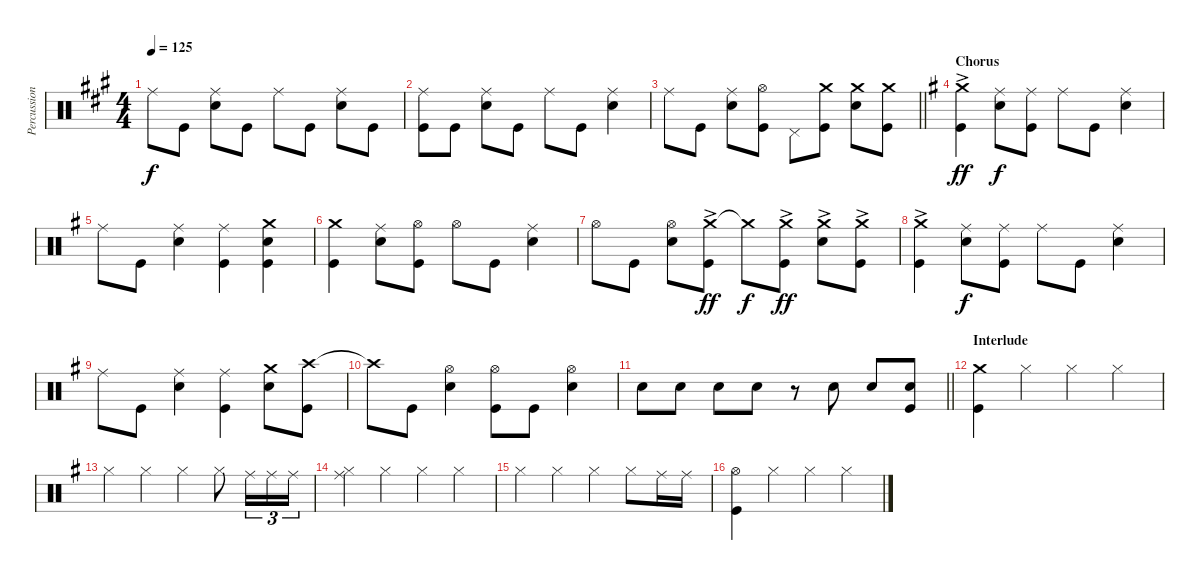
\track ("Percussion" "Percussion") {instrument percussion}
\staff {score}
\articulation defaults
\ts (4 4)
\tempo 125
\clef neutral
\ks a "Ride (middle)".8{dy f} "Kick (hit)".8
("Ride (middle)" "Snare (hit) 2").8 "Kick (hit)".8 "Ride (middle)".8 "Kick (hit)".8 ("Ride (middle)" "Snare (hit) 2").8 "Kick (hit)".8 |
("Ride (middle)" "Kick (hit)").8 "Kick (hit)".8 ("Ride (middle)" "Snare (hit) 2").8 "Kick (hit)".8 "Ride (middle)".8 "Kick (hit)".8 ("Ride (middle)" "Snare (hit) 2").4 |
\barLineRight lightlight "Ride (middle)".8 "Kick (hit)".8
("Ride (middle)" "Snare (hit) 2").8 ("Hi-Hat (open)" "Kick (hit)").8 "Pedal Hi-Hat (hit)".8 ("Crash medium (hit)" "Kick (hit)").8 ("Crash medium (hit)" "Snare (hit) 2").8 ("Crash medium (hit)" "Kick (hit)").8 |
\section ("" "Chorus")
\ks g
("Crash medium (hit)"{ac} "Kick (hit)").4{dy ff} ("Ride (middle)" "Snare (hit) 2").8{dy f} ("Ride (middle)" "Kick (hit)").8 "Ride (middle)".8 "Kick (hit)".8 ("Ride (middle)" "Snare (hit) 2").4 |
"Ride (middle)".8 "Kick (hit)".8 ("Ride (middle)" "Snare (hit) 2").4 ("Ride (middle)" "Kick (hit)").4 ("Crash medium (hit)" "Snare (hit) 2" "Kick (hit)").4 |
("Crash medium (hit)" "Kick (hit)").4 ("Ride (middle)" "Snare (hit) 2").8 ("Hi-Hat (open)" "Kick (hit)").8 "Hi-Hat (open)".8 "Kick (hit)".8 ("Ride (middle)" "Snare (hit) 2").4 |
"Hi-Hat (open)".8 "Kick (hit)".8 ("Hi-Hat (open)" "Snare (hit) 2").8 ("Crash medium (hit)" "Kick (hit)"{ac}).8{dy ff} "Crash medium (hit)"{t}.8{dy f} ("Crash medium (hit)"{ac} "Kick (hit)"{ac}).8{dy ff} ("Crash medium (hit)"{ac} "Snare (hit) 2"{ac}).8 ("Crash medium (hit)"{ac} "Kick (hit)"{ac}).8 |
("Crash medium (hit)"{ac} "Kick (hit)").4 ("Ride (middle)" "Snare (hit) 2").8{dy f} ("Ride (middle)" "Kick (hit)").8 "Ride (middle)".8 "Kick (hit)".8 ("Ride (middle)" "Snare (hit) 2").4 |
"Ride (middle)".8 "Kick (hit)".8 ("Ride (middle)" "Snare (hit) 2").4 ("Ride (middle)" "Kick (hit)").4 ("Crash medium (hit)" "Snare (hit) 2").8 ("Crash high (hit)" "Kick (hit)").8 |
"Crash high (hit)"{t}.8 "Kick (hit)".8 ("Hi-Hat (open)" "Snare (hit) 2").4 ("Hi-Hat (open)" "Kick (hit)").8 "Kick (hit)".8 ("Hi-Hat (open)" "Snare (hit) 2").4 |
\barLineRight lightlight "Snare (hit) 2".8 "Snare (hit) 2".8 "Snare (hit) 2".8 "Snare (hit) 2".8
r.8 "Snare (hit) 2".8 "Snare (hit) 2".8 ("Snare (hit) 2" "Kick (hit)").8 |
\section ("" "Interlude")
("Crash medium (hit)" "Kick (hit)").4 "Hi-Hat (closed)".4 "Hi-Hat (closed)".4 "Hi-Hat (closed)".4 |
"Hi-Hat (closed)".4 "Hi-Hat (closed)".4 "Hi-Hat (closed)".4 "Hi-Hat (closed)".8 "Ride (middle)".16{tu (3 2)} "Ride (middle)".16{tu (3 2)} "Ride (middle)".16{tu (3 2)} |
("Ride (middle)" "Hi-Hat (closed)").4 "Hi-Hat (closed)".4 "Hi-Hat (closed)".4 "Hi-Hat (closed)".4 |
"Hi-Hat (closed)".4 "Hi-Hat (closed)".4 "Hi-Hat (closed)".4 "Hi-Hat (closed)".8 "Ride (middle)".16 "Ride (middle)".16 |
("Hi-Hat (open)" "Kick (hit)").4 "Hi-Hat (closed)".4 "Hi-Hat (closed)".4 "Hi-Hat (closed)".4
